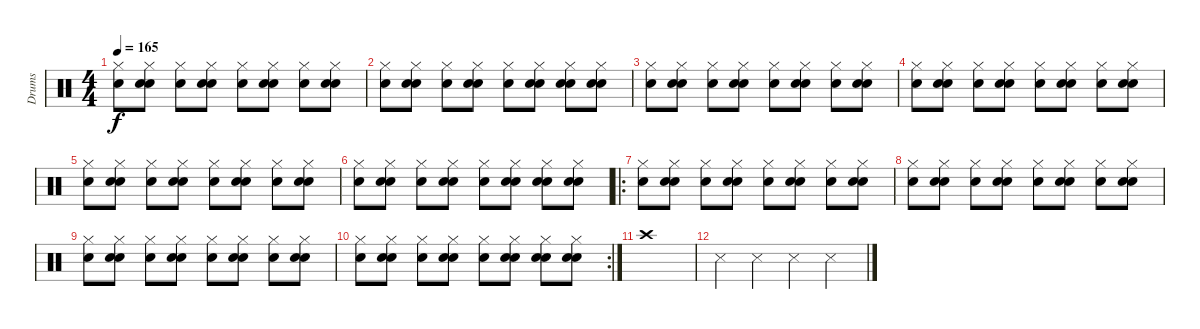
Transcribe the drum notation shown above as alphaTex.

\track ("Drums" "Drums") {instrument percussion}
\staff {score}
\articulation defaults
\ts (4 4)
\tempo 165
\clef neutral
\ks c
("Hi-Hat (closed)" "Electric Snare (hit)").8{dy f} ("Snare (hit) 2" "Electric Snare (hit)" "Hi-Hat (closed)").8 ("Hi-Hat (closed)" "Electric Snare (hit)").8 ("Snare (hit) 2" "Hi-Hat (closed)" "Electric Snare (hit)").8 ("Hi-Hat (closed)" "Electric Snare (hit)").8 ("Snare (hit) 2" "Hi-Hat (closed)" "Electric Snare (hit)").8 ("Hi-Hat (closed)" "Electric Snare (hit)").8 ("Snare (hit) 2" "Hi-Hat (closed)" "Electric Snare (hit)").8 |
("Hi-Hat (closed)" "Electric Snare (hit)").8 ("Snare (hit) 2" "Electric Snare (hit)" "Hi-Hat (closed)").8 ("Hi-Hat (closed)" "Electric Snare (hit)").8 ("Snare (hit) 2" "Hi-Hat (closed)" "Electric Snare (hit)").8 ("Hi-Hat (closed)" "Electric Snare (hit)").8 ("Snare (hit) 2" "Hi-Hat (closed)" "Electric Snare (hit)").8 ("Snare (hit) 2" "Hi-Hat (closed)" "Electric Snare (hit)").8 ("Snare (hit) 2" "Hi-Hat (closed)" "Electric Snare (hit)").8 |
("Hi-Hat (closed)" "Electric Snare (hit)").8 ("Snare (hit) 2" "Electric Snare (hit)" "Hi-Hat (closed)").8 ("Hi-Hat (closed)" "Electric Snare (hit)").8 ("Snare (hit) 2" "Hi-Hat (closed)" "Electric Snare (hit)").8 ("Hi-Hat (closed)" "Electric Snare (hit)").8 ("Snare (hit) 2" "Hi-Hat (closed)" "Electric Snare (hit)").8 ("Hi-Hat (closed)" "Electric Snare (hit)").8 ("Snare (hit) 2" "Hi-Hat (closed)" "Electric Snare (hit)").8 |
("Hi-Hat (closed)" "Electric Snare (hit)").8 ("Snare (hit) 2" "Electric Snare (hit)" "Hi-Hat (closed)").8 ("Hi-Hat (closed)" "Electric Snare (hit)").8 ("Snare (hit) 2" "Hi-Hat (closed)" "Electric Snare (hit)").8 ("Hi-Hat (closed)" "Electric Snare (hit)").8 ("Snare (hit) 2" "Hi-Hat (closed)" "Electric Snare (hit)").8 ("Hi-Hat (closed)" "Electric Snare (hit)").8 ("Snare (hit) 2" "Hi-Hat (closed)" "Electric Snare (hit)").8 |
("Hi-Hat (closed)" "Electric Snare (hit)").8 ("Snare (hit) 2" "Electric Snare (hit)" "Hi-Hat (closed)").8 ("Hi-Hat (closed)" "Electric Snare (hit)").8 ("Snare (hit) 2" "Hi-Hat (closed)" "Electric Snare (hit)").8 ("Hi-Hat (closed)" "Electric Snare (hit)").8 ("Snare (hit) 2" "Hi-Hat (closed)" "Electric Snare (hit)").8 ("Hi-Hat (closed)" "Electric Snare (hit)").8 ("Snare (hit) 2" "Hi-Hat (closed)" "Electric Snare (hit)").8 |
("Hi-Hat (closed)" "Electric Snare (hit)").8 ("Snare (hit) 2" "Electric Snare (hit)" "Hi-Hat (closed)").8 ("Hi-Hat (closed)" "Electric Snare (hit)").8 ("Snare (hit) 2" "Hi-Hat (closed)" "Electric Snare (hit)").8 ("Hi-Hat (closed)" "Electric Snare (hit)").8 ("Snare (hit) 2" "Hi-Hat (closed)" "Electric Snare (hit)").8 ("Snare (hit) 2" "Hi-Hat (closed)" "Electric Snare (hit)").8 ("Snare (hit) 2" "Hi-Hat (closed)" "Electric Snare (hit)").8 |
\ro
("Hi-Hat (closed)" "Electric Snare (hit)").8 ("Snare (hit) 2" "Electric Snare (hit)" "Hi-Hat (closed)").8 ("Hi-Hat (closed)" "Electric Snare (hit)").8 ("Snare (hit) 2" "Hi-Hat (closed)" "Electric Snare (hit)").8 ("Hi-Hat (closed)" "Electric Snare (hit)").8 ("Snare (hit) 2" "Hi-Hat (closed)" "Electric Snare (hit)").8 ("Hi-Hat (closed)" "Electric Snare (hit)").8 ("Snare (hit) 2" "Hi-Hat (closed)" "Electric Snare (hit)").8 |
("Hi-Hat (closed)" "Electric Snare (hit)").8 ("Snare (hit) 2" "Electric Snare (hit)" "Hi-Hat (closed)").8 ("Hi-Hat (closed)" "Electric Snare (hit)").8 ("Snare (hit) 2" "Hi-Hat (closed)" "Electric Snare (hit)").8 ("Hi-Hat (closed)" "Electric Snare (hit)").8 ("Snare (hit) 2" "Hi-Hat (closed)" "Electric Snare (hit)").8 ("Hi-Hat (closed)" "Electric Snare (hit)").8 ("Snare (hit) 2" "Hi-Hat (closed)" "Electric Snare (hit)").8 |
("Hi-Hat (closed)" "Electric Snare (hit)").8 ("Snare (hit) 2" "Electric Snare (hit)" "Hi-Hat (closed)").8 ("Hi-Hat (closed)" "Electric Snare (hit)").8 ("Snare (hit) 2" "Hi-Hat (closed)" "Electric Snare (hit)").8 ("Hi-Hat (closed)" "Electric Snare (hit)").8 ("Snare (hit) 2" "Hi-Hat (closed)" "Electric Snare (hit)").8 ("Hi-Hat (closed)" "Electric Snare (hit)").8 ("Snare (hit) 2" "Hi-Hat (closed)" "Electric Snare (hit)").8 |
\rc 2
("Hi-Hat (closed)" "Electric Snare (hit)").8 ("Snare (hit) 2" "Electric Snare (hit)" "Hi-Hat (closed)").8 ("Hi-Hat (closed)" "Electric Snare (hit)").8 ("Snare (hit) 2" "Hi-Hat (closed)" "Electric Snare (hit)").8 ("Hi-Hat (closed)" "Electric Snare (hit)").8 ("Snare (hit) 2" "Hi-Hat (closed)" "Electric Snare (hit)").8 ("Snare (hit) 2" "Hi-Hat (closed)" "Electric Snare (hit)").8 ("Snare (hit) 2" "Hi-Hat (closed)" "Electric Snare (hit)").8 |
"Crash high (hit)".1 |
"Metronome (hit)".4 "Metronome (hit)".4 "Metronome (hit)".4 "Metronome (hit)".4
